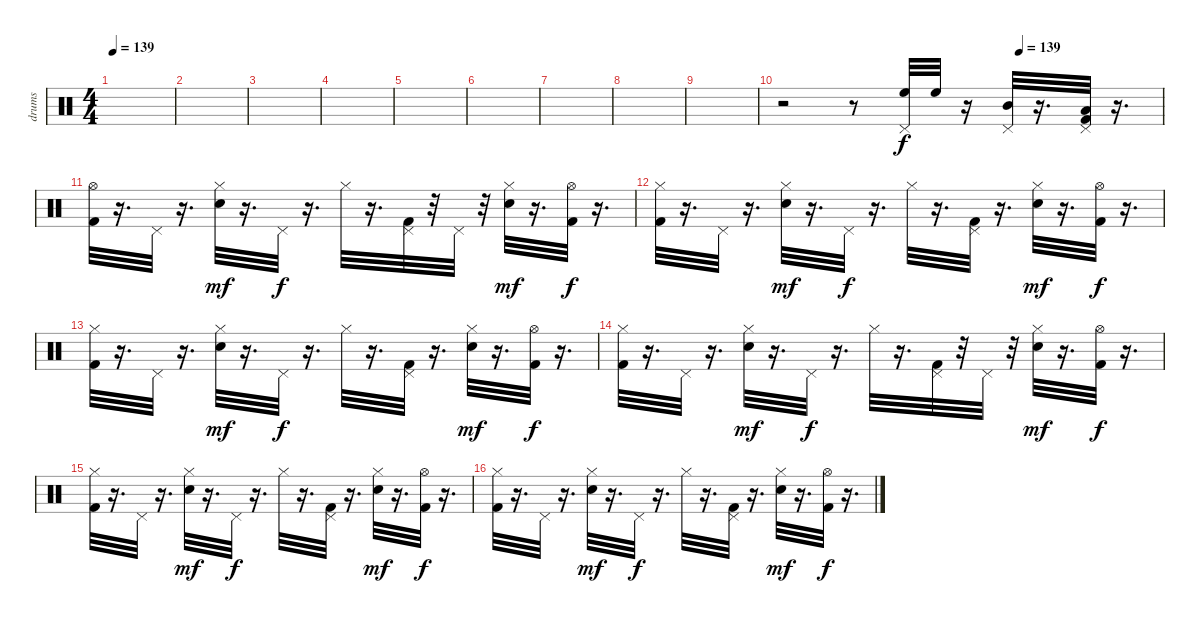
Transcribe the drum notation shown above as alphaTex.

\track ("drums" "drums") {instrument percussion}
\staff {score}
\articulation defaults
\ts (4 4)
\tempo 139
\tempo 60
\tempo 139
\clef neutral
\ks c
|
|
|
|
|
|
|
|
|
\tempo (139 0.625)
r.2 r.8 ("Pedal Hi-Hat (hit)" "High Floor Tom (hit)").32 "High Floor Tom (hit)".32 r.16 ("Pedal Hi-Hat (hit)" "Mid Tom (hit)").32 r.16{d} ("Kick (hit) 2" "Pedal Hi-Hat (hit)" "Low Tom (hit)").32 r.16{d} |
("Kick (hit) 2" "Hi-Hat (open)").32 r.16{d} "Pedal Hi-Hat (hit)".32 r.16{d} ("Snare (hit) 2" "Hi-Hat (closed)").32{dy mf} r.16{d} "Pedal Hi-Hat (hit)".32{dy f} r.16{d} "Hi-Hat (closed)".32 r.16{d} ("Pedal Hi-Hat (hit)" "Kick (hit) 2").32 r.32 "Pedal Hi-Hat (hit)".32 r.32 ("Snare (hit) 2" "Hi-Hat (closed)").32{dy mf} r.16{d} ("Kick (hit) 2" "Hi-Hat (open)").32{dy f} r.16{d} |
("Kick (hit) 2" "Hi-Hat (closed)").32 r.16{d} "Pedal Hi-Hat (hit)".32 r.16{d} ("Snare (hit) 2" "Hi-Hat (closed)").32{dy mf} r.16{d} "Pedal Hi-Hat (hit)".32{dy f} r.16{d} "Hi-Hat (closed)".32 r.16{d} ("Pedal Hi-Hat (hit)" "Kick (hit) 2").32 r.16{d} ("Snare (hit) 2" "Hi-Hat (closed)").32{dy mf} r.16{d} ("Kick (hit) 2" "Hi-Hat (open)").32{dy f} r.16{d} |
("Kick (hit) 2" "Hi-Hat (closed)").32 r.16{d} "Pedal Hi-Hat (hit)".32 r.16{d} ("Snare (hit) 2" "Hi-Hat (closed)").32{dy mf} r.16{d} "Pedal Hi-Hat (hit)".32{dy f} r.16{d} "Hi-Hat (closed)".32 r.16{d} ("Pedal Hi-Hat (hit)" "Kick (hit) 2").32 r.16{d} ("Snare (hit) 2" "Hi-Hat (closed)").32{dy mf} r.16{d} ("Kick (hit) 2" "Hi-Hat (open)").32{dy f} r.16{d} |
("Kick (hit) 2" "Hi-Hat (closed)").32 r.16{d} "Pedal Hi-Hat (hit)".32 r.16{d} ("Snare (hit) 2" "Hi-Hat (closed)").32{dy mf} r.16{d} "Pedal Hi-Hat (hit)".32{dy f} r.16{d} "Hi-Hat (closed)".32 r.16{d} ("Pedal Hi-Hat (hit)" "Kick (hit) 2").32 r.32 "Pedal Hi-Hat (hit)".32 r.32 ("Snare (hit) 2" "Hi-Hat (closed)").32{dy mf} r.16{d} ("Kick (hit) 2" "Hi-Hat (open)").32{dy f} r.16{d} |
("Kick (hit) 2" "Hi-Hat (closed)").32 r.16{d} "Pedal Hi-Hat (hit)".32 r.16{d} ("Snare (hit) 2" "Hi-Hat (closed)").32{dy mf} r.16{d} "Pedal Hi-Hat (hit)".32{dy f} r.16{d} "Hi-Hat (closed)".32 r.16{d} ("Pedal Hi-Hat (hit)" "Kick (hit) 2").32 r.16{d} ("Snare (hit) 2" "Hi-Hat (closed)").32{dy mf} r.16{d} ("Kick (hit) 2" "Hi-Hat (open)").32{dy f} r.16{d} |
("Kick (hit) 2" "Hi-Hat (closed)").32 r.16{d} "Pedal Hi-Hat (hit)".32 r.16{d} ("Snare (hit) 2" "Hi-Hat (closed)").32{dy mf} r.16{d} "Pedal Hi-Hat (hit)".32{dy f} r.16{d} "Hi-Hat (closed)".32 r.16{d} ("Pedal Hi-Hat (hit)" "Kick (hit) 2").32 r.16{d} ("Snare (hit) 2" "Hi-Hat (closed)").32{dy mf} r.16{d} ("Kick (hit) 2" "Hi-Hat (open)").32{dy f} r.16{d}
